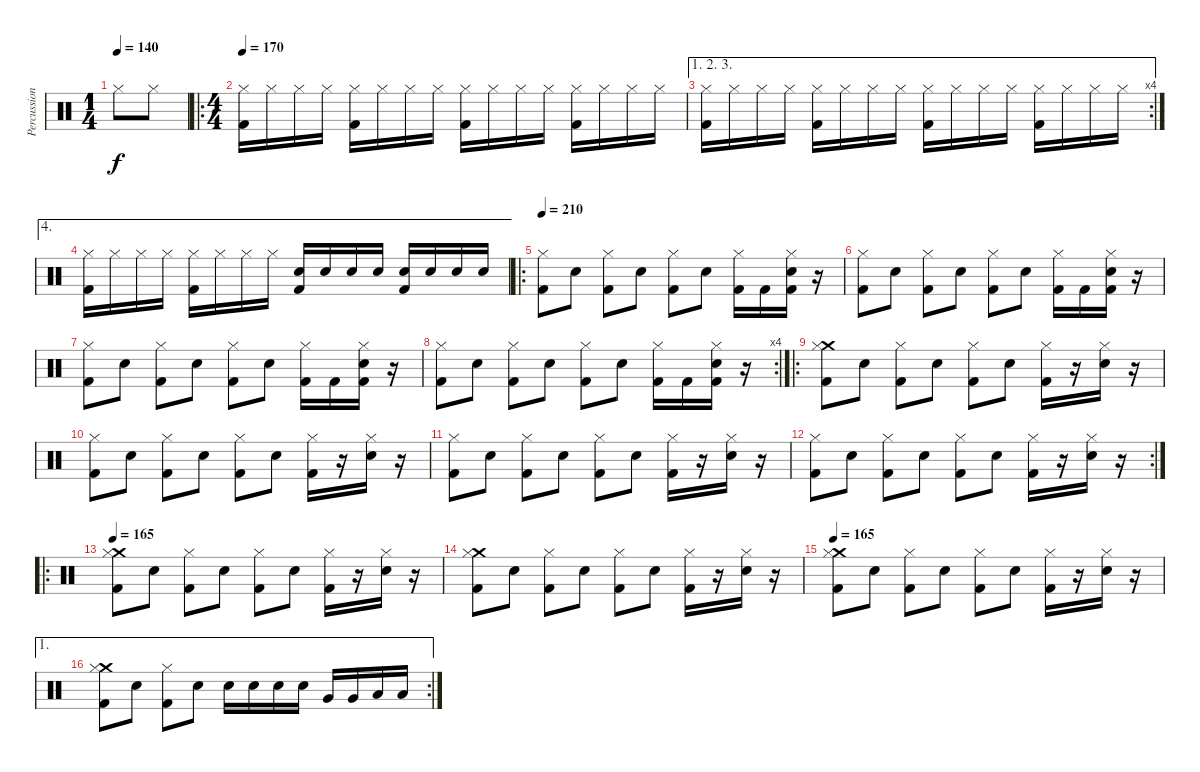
\track ("Percussion" "Percussion") {instrument percussion}
\staff {score}
\articulation defaults
\ts (1 4)
\tempo 140
\clef neutral
\ks c "Hi-Hat (closed)".8{dy f} "Hi-Hat (closed)".8
|
\ro
\ts (4 4)
\tempo 170
("Kick (hit) 2" "Hi-Hat (closed)").16 "Hi-Hat (closed)".16 "Hi-Hat (closed)".16 "Hi-Hat (closed)".16 ("Kick (hit) 2" "Hi-Hat (closed)").16 "Hi-Hat (closed)".16 "Hi-Hat (closed)".16 "Hi-Hat (closed)".16 ("Kick (hit) 2" "Hi-Hat (closed)").16 "Hi-Hat (closed)".16 "Hi-Hat (closed)".16 "Hi-Hat (closed)".16 ("Kick (hit) 2" "Hi-Hat (closed)").16 "Hi-Hat (closed)".16 "Hi-Hat (closed)".16 "Hi-Hat (closed)".16 |
\ae (1 2 3)
\rc 4
("Kick (hit) 2" "Hi-Hat (closed)").16 "Hi-Hat (closed)".16 "Hi-Hat (closed)".16 "Hi-Hat (closed)".16 ("Kick (hit) 2" "Hi-Hat (closed)").16 "Hi-Hat (closed)".16 "Hi-Hat (closed)".16 "Hi-Hat (closed)".16 ("Kick (hit) 2" "Hi-Hat (closed)").16 "Hi-Hat (closed)".16 "Hi-Hat (closed)".16 "Hi-Hat (closed)".16 ("Kick (hit) 2" "Hi-Hat (closed)").16 "Hi-Hat (closed)".16 "Hi-Hat (closed)".16 "Hi-Hat (closed)".16 |
\ae 4
("Kick (hit) 2" "Hi-Hat (closed)").16 "Hi-Hat (closed)".16 "Hi-Hat (closed)".16 "Hi-Hat (closed)".16 ("Kick (hit) 2" "Hi-Hat (closed)").16 "Hi-Hat (closed)".16 "Hi-Hat (closed)".16 "Hi-Hat (closed)".16 ("Kick (hit) 2" "Snare (hit) 2").16 "Snare (hit) 2".16 "Snare (hit) 2".16 "Snare (hit) 2".16 ("Kick (hit) 2" "Snare (hit) 2").16 "Snare (hit) 2".16 "Snare (hit) 2".16 "Snare (hit) 2".16 |
\ro
\tempo 210
("Hi-Hat (closed)" "Kick (hit) 2").8 "Snare (hit) 2".8 ("Hi-Hat (closed)" "Kick (hit) 2").8 "Snare (hit) 2".8 ("Hi-Hat (closed)" "Kick (hit) 2").8 "Snare (hit) 2".8 ("Hi-Hat (closed)" "Kick (hit) 2").16 "Kick (hit) 2".16 ("Hi-Hat (closed)" "Snare (hit) 2" "Kick (hit) 2").16 r.16 |
("Hi-Hat (closed)" "Kick (hit) 2").8 "Snare (hit) 2".8 ("Hi-Hat (closed)" "Kick (hit) 2").8 "Snare (hit) 2".8 ("Hi-Hat (closed)" "Kick (hit) 2").8 "Snare (hit) 2".8 ("Hi-Hat (closed)" "Kick (hit) 2").16 "Kick (hit) 2".16 ("Hi-Hat (closed)" "Snare (hit) 2" "Kick (hit) 2").16 r.16 |
("Hi-Hat (closed)" "Kick (hit) 2").8 "Snare (hit) 2".8 ("Hi-Hat (closed)" "Kick (hit) 2").8 "Snare (hit) 2".8 ("Hi-Hat (closed)" "Kick (hit) 2").8 "Snare (hit) 2".8 ("Hi-Hat (closed)" "Kick (hit) 2").16 "Kick (hit) 2".16 ("Hi-Hat (closed)" "Snare (hit) 2" "Kick (hit) 2").16 r.16 |
\rc 4
("Hi-Hat (closed)" "Kick (hit) 2").8 "Snare (hit) 2".8 ("Hi-Hat (closed)" "Kick (hit) 2").8 "Snare (hit) 2".8 ("Hi-Hat (closed)" "Kick (hit) 2").8 "Snare (hit) 2".8 ("Hi-Hat (closed)" "Kick (hit) 2").16 "Kick (hit) 2".16 ("Hi-Hat (closed)" "Snare (hit) 2" "Kick (hit) 2").16 r.16 |
\ro
("Crash medium (hit)" "Hi-Hat (closed)" "Kick (hit) 2").8 "Snare (hit) 2".8 ("Hi-Hat (closed)" "Kick (hit) 2").8 "Snare (hit) 2".8 ("Hi-Hat (closed)" "Kick (hit) 2").8 "Snare (hit) 2".8 ("Hi-Hat (closed)" "Kick (hit) 2").16 r.16 ("Hi-Hat (closed)" "Snare (hit) 2").16 r.16 |
("Hi-Hat (closed)" "Kick (hit) 2").8 "Snare (hit) 2".8 ("Hi-Hat (closed)" "Kick (hit) 2").8 "Snare (hit) 2".8 ("Hi-Hat (closed)" "Kick (hit) 2").8 "Snare (hit) 2".8 ("Hi-Hat (closed)" "Kick (hit) 2").16 r.16 ("Hi-Hat (closed)" "Snare (hit) 2").16 r.16 |
("Hi-Hat (closed)" "Kick (hit) 2").8 "Snare (hit) 2".8 ("Hi-Hat (closed)" "Kick (hit) 2").8 "Snare (hit) 2".8 ("Hi-Hat (closed)" "Kick (hit) 2").8 "Snare (hit) 2".8 ("Hi-Hat (closed)" "Kick (hit) 2").16 r.16 ("Hi-Hat (closed)" "Snare (hit) 2").16 r.16 |
\rc 2
("Hi-Hat (closed)" "Kick (hit) 2").8 "Snare (hit) 2".8 ("Hi-Hat (closed)" "Kick (hit) 2").8 "Snare (hit) 2".8 ("Hi-Hat (closed)" "Kick (hit) 2").8 "Snare (hit) 2".8 ("Hi-Hat (closed)" "Kick (hit) 2").16 r.16 ("Hi-Hat (closed)" "Snare (hit) 2").16 r.16 |
\ro
\tempo 165
("Crash medium (hit)" "Hi-Hat (closed)" "Kick (hit) 2").8 "Snare (hit) 2".8 ("Hi-Hat (closed)" "Kick (hit) 2").8 "Snare (hit) 2".8 ("Hi-Hat (closed)" "Kick (hit) 2").8 "Snare (hit) 2".8 ("Hi-Hat (closed)" "Kick (hit) 2").16 r.16 ("Hi-Hat (closed)" "Snare (hit) 2").16 r.16 |
("Crash medium (hit)" "Hi-Hat (closed)" "Kick (hit) 2").8 "Snare (hit) 2".8 ("Hi-Hat (closed)" "Kick (hit) 2").8 "Snare (hit) 2".8 ("Hi-Hat (closed)" "Kick (hit) 2").8 "Snare (hit) 2".8 ("Hi-Hat (closed)" "Kick (hit) 2").16 r.16 ("Hi-Hat (closed)" "Snare (hit) 2").16 r.16 |
\tempo 165
("Crash medium (hit)" "Hi-Hat (closed)" "Kick (hit) 2").8 "Snare (hit) 2".8 ("Hi-Hat (closed)" "Kick (hit) 2").8 "Snare (hit) 2".8 ("Hi-Hat (closed)" "Kick (hit) 2").8 "Snare (hit) 2".8 ("Hi-Hat (closed)" "Kick (hit) 2").16 r.16 ("Hi-Hat (closed)" "Snare (hit) 2").16 r.16 |
\ae 1
\rc 2
("Crash medium (hit)" "Hi-Hat (closed)" "Kick (hit) 2").8 "Snare (hit) 2".8 ("Hi-Hat (closed)" "Kick (hit) 2").8 "Snare (hit) 2".8 "Snare (hit) 2".16 "Snare (hit) 2".16 "Snare (hit) 2".16 "Snare (hit) 2".16 "Very Low Tom (hit)".16 "Very Low Tom (hit)".16 "Low Floor Tom (hit)".16 "Low Floor Tom (hit)".16
